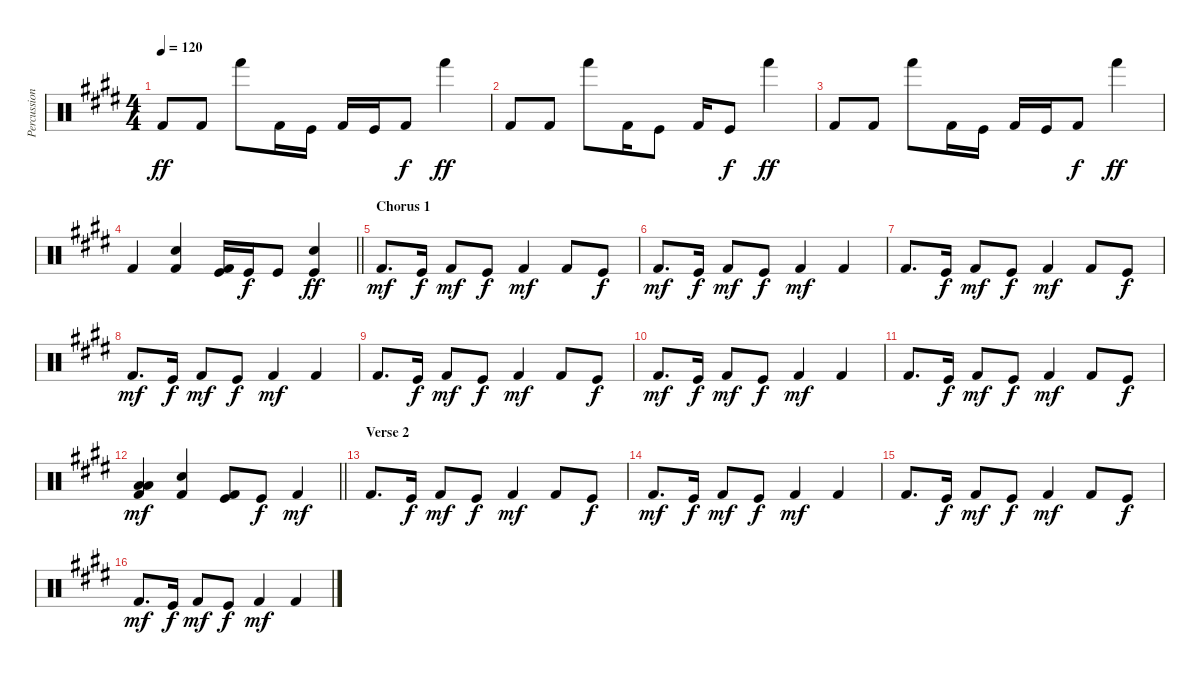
\track ("Percussion" "Percussion") {instrument percussion}
\staff {score}
\articulation defaults
\ts (4 4)
\tempo 120
\clef neutral
\ks e "Kick (hit) 2".8{dy ff} "Kick (hit) 2".8 "Hand (hit)".8 "Kick (hit) 2".16 "Kick (hit)".16 "Kick (hit) 2".16 "Kick (hit)".16 "Kick (hit) 2".8{dy f} "Hand (hit)".4{dy ff}
|
"Kick (hit) 2".8 "Kick (hit) 2".8 "Hand (hit)".8 "Kick (hit) 2".16 "Kick (hit)".8 "Kick (hit) 2".16 "Kick (hit)".8{dy f} "Hand (hit)".4{dy ff} |
"Kick (hit) 2".8 "Kick (hit) 2".8 "Hand (hit)".8 "Kick (hit) 2".16 "Kick (hit)".16 "Kick (hit) 2".16 "Kick (hit)".16 "Kick (hit) 2".8{dy f} "Hand (hit)".4{dy ff} |
\barLineRight lightlight "Kick (hit) 2".4
("Snare (hit) 2" "Kick (hit) 2").4 ("Kick (hit)" "Kick (hit) 2").16 "Kick (hit)".16{dy f} "Kick (hit)".8 ("Snare (hit) 2" "Kick (hit)").4{dy ff} |
\section ("" "Chorus 1")
"Kick (hit) 2".8{d dy mf} "Kick (hit)".16{dy f} "Kick (hit) 2".8{dy mf} "Kick (hit)".8{dy f} "Kick (hit) 2".4{dy mf} "Kick (hit) 2".8 "Kick (hit)".8{dy f} |
"Kick (hit) 2".8{d dy mf} "Kick (hit)".16{dy f} "Kick (hit) 2".8{dy mf} "Kick (hit)".8{dy f} "Kick (hit) 2".4{dy mf} "Kick (hit) 2".4 |
"Kick (hit) 2".8{d} "Kick (hit)".16{dy f} "Kick (hit) 2".8{dy mf} "Kick (hit)".8{dy f} "Kick (hit) 2".4{dy mf} "Kick (hit) 2".8 "Kick (hit)".8{dy f} |
"Kick (hit) 2".8{d dy mf} "Kick (hit)".16{dy f} "Kick (hit) 2".8{dy mf} "Kick (hit)".8{dy f} "Kick (hit) 2".4{dy mf} "Kick (hit) 2".4 |
"Kick (hit) 2".8{d} "Kick (hit)".16{dy f} "Kick (hit) 2".8{dy mf} "Kick (hit)".8{dy f} "Kick (hit) 2".4{dy mf} "Kick (hit) 2".8 "Kick (hit)".8{dy f} |
"Kick (hit) 2".8{d dy mf} "Kick (hit)".16{dy f} "Kick (hit) 2".8{dy mf} "Kick (hit)".8{dy f} "Kick (hit) 2".4{dy mf} "Kick (hit) 2".4 |
"Kick (hit) 2".8{d} "Kick (hit)".16{dy f} "Kick (hit) 2".8{dy mf} "Kick (hit)".8{dy f} "Kick (hit) 2".4{dy mf} "Kick (hit) 2".8 "Kick (hit)".8{dy f} |
\barLineRight lightlight
("Low Floor Tom (hit)" "Low Tom (hit)" "Kick (hit) 2").4{dy mf} ("Snare (hit) 2" "Kick (hit) 2").4 ("Kick (hit)" "Kick (hit) 2").8 "Kick (hit)".8{dy f} "Kick (hit) 2".4{dy mf} |
\section ("" "Verse 2")
"Kick (hit) 2".8{d} "Kick (hit)".16{dy f} "Kick (hit) 2".8{dy mf} "Kick (hit)".8{dy f} "Kick (hit) 2".4{dy mf} "Kick (hit) 2".8 "Kick (hit)".8{dy f} |
"Kick (hit) 2".8{d dy mf} "Kick (hit)".16{dy f} "Kick (hit) 2".8{dy mf} "Kick (hit)".8{dy f} "Kick (hit) 2".4{dy mf} "Kick (hit) 2".4 |
"Kick (hit) 2".8{d} "Kick (hit)".16{dy f} "Kick (hit) 2".8{dy mf} "Kick (hit)".8{dy f} "Kick (hit) 2".4{dy mf} "Kick (hit) 2".8 "Kick (hit)".8{dy f} |
"Kick (hit) 2".8{d dy mf} "Kick (hit)".16{dy f} "Kick (hit) 2".8{dy mf} "Kick (hit)".8{dy f} "Kick (hit) 2".4{dy mf} "Kick (hit) 2".4
